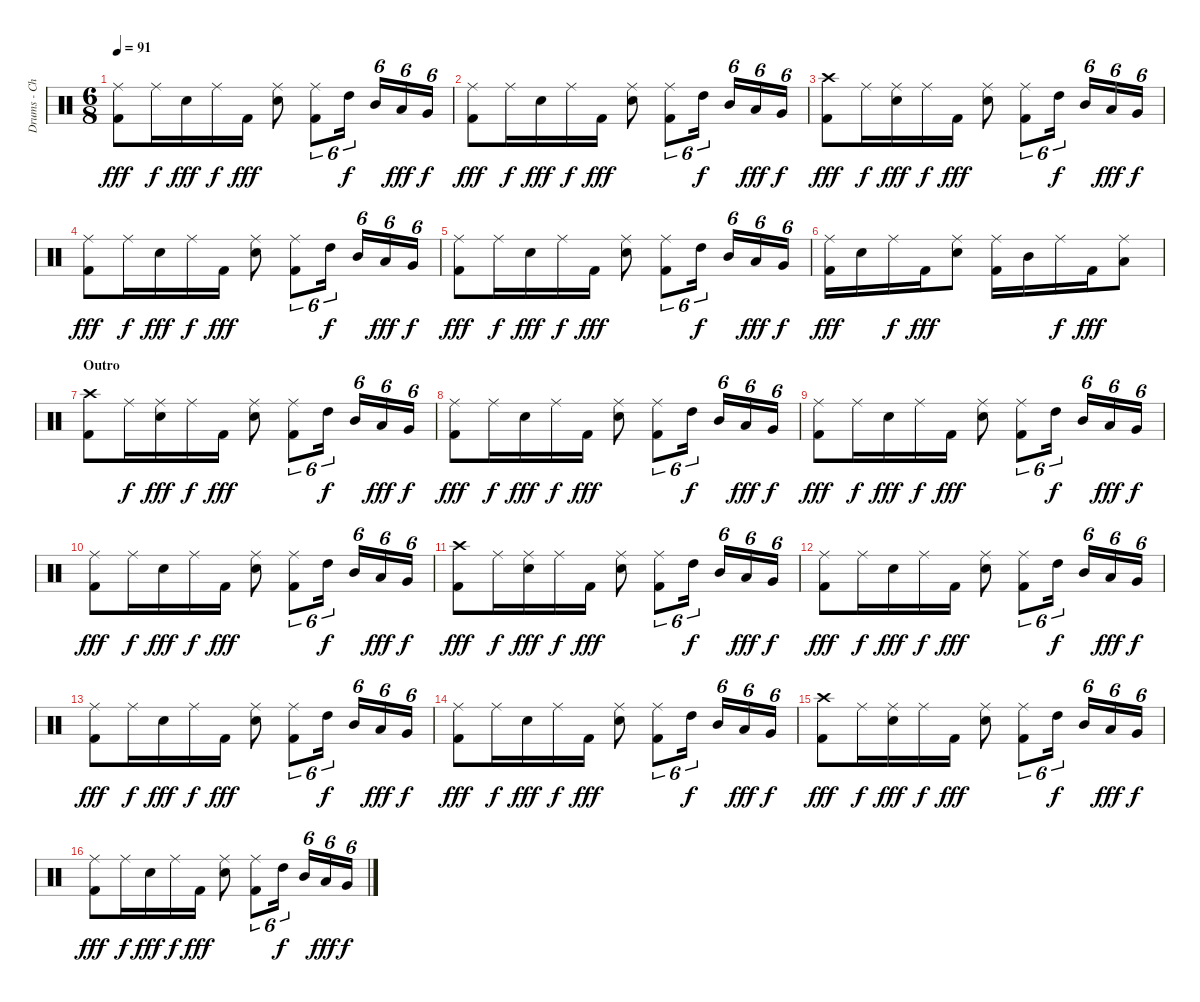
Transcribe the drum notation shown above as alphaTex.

\track ("Drums - Chad" "Drums - Ch") {instrument percussion}
\staff {score}
\articulation defaults
\ts (6 8)
\tempo 91
\clef neutral
\ks c
("Ride (middle)" "Kick (hit) 2").8{dy fff} "Ride (middle)".16{dy f} "Electric Snare (hit)".16{dy fff} "Ride (middle)".16{dy f} "Kick (hit) 2".16{dy fff} ("Ride (middle)" "Electric Snare (hit)").8 ("Ride (middle)" "Kick (hit) 2").8{tu (6 4)} "High Tom (hit)".16{tu (6 4) dy f} "Mid Tom (hit)".16{tu (6 4)} "Low Tom (hit)".16{tu (6 4) dy fff} "Very Low Tom (hit)".16{tu (6 4) dy f} |
("Ride (middle)" "Kick (hit) 2").8{dy fff} "Ride (middle)".16{dy f} "Electric Snare (hit)".16{dy fff} "Ride (middle)".16{dy f} "Kick (hit) 2".16{dy fff} ("Ride (middle)" "Electric Snare (hit)").8 ("Ride (middle)" "Kick (hit) 2").8{tu (6 4)} "High Tom (hit)".16{tu (6 4) dy f} "Mid Tom (hit)".16{tu (6 4)} "Low Tom (hit)".16{tu (6 4) dy fff} "Very Low Tom (hit)".16{tu (6 4) dy f} |
("Crash high (hit)" "Kick (hit) 2").8{dy fff} "Ride (middle)".16{dy f} ("Ride (middle)" "Electric Snare (hit)").16{dy fff} "Ride (middle)".16{dy f} "Kick (hit) 2".16{dy fff} ("Ride (middle)" "Electric Snare (hit)").8 ("Ride (middle)" "Kick (hit) 2").8{tu (6 4)} "High Tom (hit)".16{tu (6 4) dy f} "Mid Tom (hit)".16{tu (6 4)} "Low Tom (hit)".16{tu (6 4) dy fff} "Very Low Tom (hit)".16{tu (6 4) dy f} |
("Ride (middle)" "Kick (hit) 2").8{dy fff} "Ride (middle)".16{dy f} "Electric Snare (hit)".16{dy fff} "Ride (middle)".16{dy f} "Kick (hit) 2".16{dy fff} ("Ride (middle)" "Electric Snare (hit)").8 ("Ride (middle)" "Kick (hit) 2").8{tu (6 4)} "High Tom (hit)".16{tu (6 4) dy f} "Mid Tom (hit)".16{tu (6 4)} "Low Tom (hit)".16{tu (6 4) dy fff} "Very Low Tom (hit)".16{tu (6 4) dy f} |
("Ride (middle)" "Kick (hit) 2").8{dy fff} "Ride (middle)".16{dy f} "Electric Snare (hit)".16{dy fff} "Ride (middle)".16{dy f} "Kick (hit) 2".16{dy fff} ("Ride (middle)" "Electric Snare (hit)").8 ("Ride (middle)" "Kick (hit) 2").8{tu (6 4)} "High Tom (hit)".16{tu (6 4) dy f} "Mid Tom (hit)".16{tu (6 4)} "Low Tom (hit)".16{tu (6 4) dy fff} "Very Low Tom (hit)".16{tu (6 4) dy f} |
("Ride (middle)" "Kick (hit) 2").16{dy fff} "Electric Snare (hit)".16 "Ride (middle)".16{dy f} "Kick (hit) 2".16{dy fff} ("Ride (middle)" "Electric Snare (hit)").8 ("Ride (middle)" "Kick (hit) 2").16 "Mid Tom (hit)".16 "Ride (middle)".16{dy f} "Kick (hit) 2".16{dy fff} ("Ride (middle)" "Low Tom (hit)").8 |
\section ("" "Outro")
("Crash high (hit)" "Kick (hit) 2").8 "Ride (middle)".16{dy f} ("Ride (middle)" "Electric Snare (hit)").16{dy fff} "Ride (middle)".16{dy f} "Kick (hit) 2".16{dy fff} ("Ride (middle)" "Electric Snare (hit)").8 ("Ride (middle)" "Kick (hit) 2").8{tu (6 4)} "High Tom (hit)".16{tu (6 4) dy f} "Mid Tom (hit)".16{tu (6 4)} "Low Tom (hit)".16{tu (6 4) dy fff} "Very Low Tom (hit)".16{tu (6 4) dy f} |
("Ride (middle)" "Kick (hit) 2").8{dy fff} "Ride (middle)".16{dy f} "Electric Snare (hit)".16{dy fff} "Ride (middle)".16{dy f} "Kick (hit) 2".16{dy fff} ("Ride (middle)" "Electric Snare (hit)").8 ("Ride (middle)" "Kick (hit) 2").8{tu (6 4)} "High Tom (hit)".16{tu (6 4) dy f} "Mid Tom (hit)".16{tu (6 4)} "Low Tom (hit)".16{tu (6 4) dy fff} "Very Low Tom (hit)".16{tu (6 4) dy f} |
("Ride (middle)" "Kick (hit) 2").8{dy fff} "Ride (middle)".16{dy f} "Electric Snare (hit)".16{dy fff} "Ride (middle)".16{dy f} "Kick (hit) 2".16{dy fff} ("Ride (middle)" "Electric Snare (hit)").8 ("Ride (middle)" "Kick (hit) 2").8{tu (6 4)} "High Tom (hit)".16{tu (6 4) dy f} "Mid Tom (hit)".16{tu (6 4)} "Low Tom (hit)".16{tu (6 4) dy fff} "Very Low Tom (hit)".16{tu (6 4) dy f} |
("Ride (middle)" "Kick (hit) 2").8{dy fff} "Ride (middle)".16{dy f} "Electric Snare (hit)".16{dy fff} "Ride (middle)".16{dy f} "Kick (hit) 2".16{dy fff} ("Ride (middle)" "Electric Snare (hit)").8 ("Ride (middle)" "Kick (hit) 2").8{tu (6 4)} "High Tom (hit)".16{tu (6 4) dy f} "Mid Tom (hit)".16{tu (6 4)} "Low Tom (hit)".16{tu (6 4) dy fff} "Very Low Tom (hit)".16{tu (6 4) dy f} |
("Crash high (hit)" "Kick (hit) 2").8{dy fff} "Ride (middle)".16{dy f} ("Ride (middle)" "Electric Snare (hit)").16{dy fff} "Ride (middle)".16{dy f} "Kick (hit) 2".16{dy fff} ("Ride (middle)" "Electric Snare (hit)").8 ("Ride (middle)" "Kick (hit) 2").8{tu (6 4)} "High Tom (hit)".16{tu (6 4) dy f} "Mid Tom (hit)".16{tu (6 4)} "Low Tom (hit)".16{tu (6 4) dy fff} "Very Low Tom (hit)".16{tu (6 4) dy f} |
("Ride (middle)" "Kick (hit) 2").8{dy fff} "Ride (middle)".16{dy f} "Electric Snare (hit)".16{dy fff} "Ride (middle)".16{dy f} "Kick (hit) 2".16{dy fff} ("Ride (middle)" "Electric Snare (hit)").8 ("Ride (middle)" "Kick (hit) 2").8{tu (6 4)} "High Tom (hit)".16{tu (6 4) dy f} "Mid Tom (hit)".16{tu (6 4)} "Low Tom (hit)".16{tu (6 4) dy fff} "Very Low Tom (hit)".16{tu (6 4) dy f} |
("Ride (middle)" "Kick (hit) 2").8{dy fff} "Ride (middle)".16{dy f} "Electric Snare (hit)".16{dy fff} "Ride (middle)".16{dy f} "Kick (hit) 2".16{dy fff} ("Ride (middle)" "Electric Snare (hit)").8 ("Ride (middle)" "Kick (hit) 2").8{tu (6 4)} "High Tom (hit)".16{tu (6 4) dy f} "Mid Tom (hit)".16{tu (6 4)} "Low Tom (hit)".16{tu (6 4) dy fff} "Very Low Tom (hit)".16{tu (6 4) dy f} |
("Ride (middle)" "Kick (hit) 2").8{dy fff} "Ride (middle)".16{dy f} "Electric Snare (hit)".16{dy fff} "Ride (middle)".16{dy f} "Kick (hit) 2".16{dy fff} ("Ride (middle)" "Electric Snare (hit)").8 ("Ride (middle)" "Kick (hit) 2").8{tu (6 4)} "High Tom (hit)".16{tu (6 4) dy f} "Mid Tom (hit)".16{tu (6 4)} "Low Tom (hit)".16{tu (6 4) dy fff} "Very Low Tom (hit)".16{tu (6 4) dy f} |
("Crash high (hit)" "Kick (hit) 2").8{dy fff} "Ride (middle)".16{dy f} ("Ride (middle)" "Electric Snare (hit)").16{dy fff} "Ride (middle)".16{dy f} "Kick (hit) 2".16{dy fff} ("Ride (middle)" "Electric Snare (hit)").8 ("Ride (middle)" "Kick (hit) 2").8{tu (6 4)} "High Tom (hit)".16{tu (6 4) dy f} "Mid Tom (hit)".16{tu (6 4)} "Low Tom (hit)".16{tu (6 4) dy fff} "Very Low Tom (hit)".16{tu (6 4) dy f} |
("Ride (middle)" "Kick (hit) 2").8{dy fff} "Ride (middle)".16{dy f} "Electric Snare (hit)".16{dy fff} "Ride (middle)".16{dy f} "Kick (hit) 2".16{dy fff} ("Ride (middle)" "Electric Snare (hit)").8 ("Ride (middle)" "Kick (hit) 2").8{tu (6 4)} "High Tom (hit)".16{tu (6 4) dy f} "Mid Tom (hit)".16{tu (6 4)} "Low Tom (hit)".16{tu (6 4) dy fff} "Very Low Tom (hit)".16{tu (6 4) dy f}
